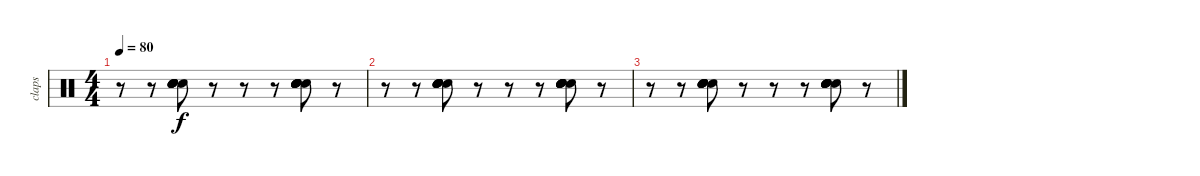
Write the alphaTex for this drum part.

\track ("claps" "claps") {instrument percussion}
\staff {score}
\articulation defaults
\ts (4 4)
\tempo 80
\clef neutral
\ks c
r.8{dy f} r.8 ("Hand Clap (hit)" "Hand Clap (hit)" "Hand Clap (hit)" "Hand Clap (hit)" "Hand Clap (hit)" "Hand Clap (hit)").8{bd 30} r.8 r.8 r.8 ("Hand Clap (hit)" "Hand Clap (hit)" "Hand Clap (hit)" "Hand Clap (hit)" "Hand Clap (hit)" "Hand Clap (hit)").8{bd 30} r.8 |
r.8 r.8 ("Hand Clap (hit)" "Hand Clap (hit)" "Hand Clap (hit)" "Hand Clap (hit)" "Hand Clap (hit)" "Hand Clap (hit)").8{bd 30} r.8 r.8 r.8 ("Hand Clap (hit)" "Hand Clap (hit)" "Hand Clap (hit)" "Hand Clap (hit)" "Hand Clap (hit)" "Hand Clap (hit)").8{bd 30} r.8 |
r.8 r.8 ("Hand Clap (hit)" "Hand Clap (hit)" "Hand Clap (hit)" "Hand Clap (hit)" "Hand Clap (hit)" "Hand Clap (hit)").8{bd 30} r.8 r.8 r.8 ("Hand Clap (hit)" "Hand Clap (hit)" "Hand Clap (hit)" "Hand Clap (hit)" "Hand Clap (hit)" "Hand Clap (hit)").8{bd 30} r.8
